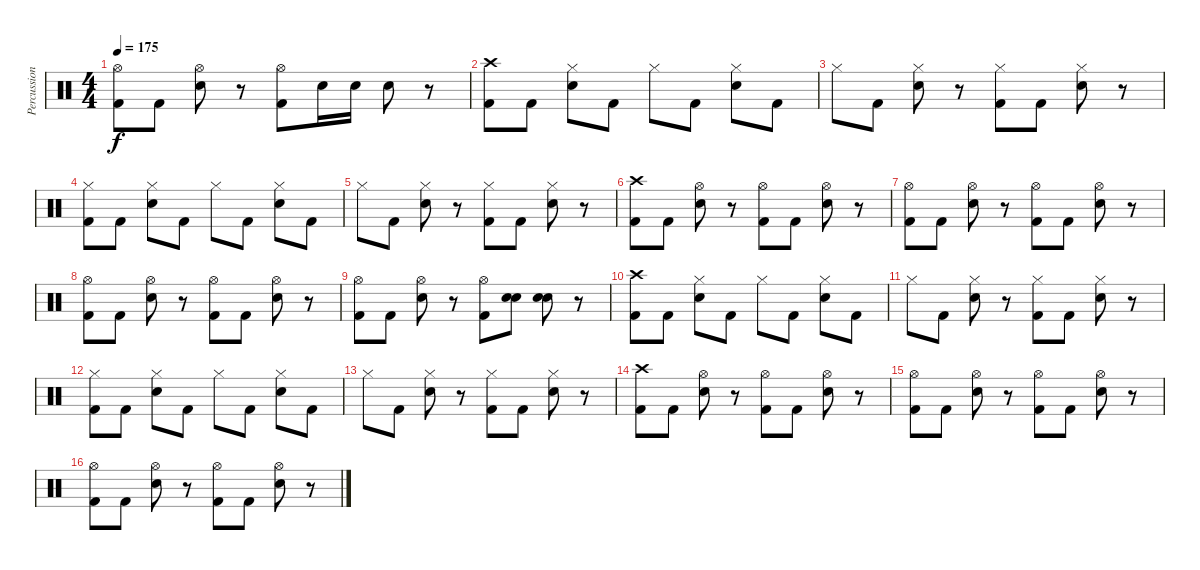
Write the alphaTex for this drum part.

\track ("Percussion" "Percussion") {instrument percussion}
\staff {score}
\articulation defaults
\ts (4 4)
\tempo 175
\clef neutral
\ks c
("Hi-Hat (open)" "Kick (hit) 2").8{dy f} "Kick (hit) 2".8 ("Hi-Hat (open)" "Snare (hit) 2").8 r.8 ("Hi-Hat (open)" "Kick (hit) 2").8 "Snare (hit) 2".16 "Snare (hit) 2".16 "Snare (hit) 2".8 r.8 |
("Crash high (hit)" "Kick (hit) 2").8 "Kick (hit) 2".8 ("Hi-Hat (closed)" "Snare (hit) 2").8 "Kick (hit) 2".8 "Hi-Hat (closed)".8 "Kick (hit) 2".8 ("Hi-Hat (closed)" "Snare (hit) 2").8 "Kick (hit) 2".8 |
"Hi-Hat (closed)".8 "Kick (hit) 2".8 ("Hi-Hat (closed)" "Snare (hit) 2").8 r.8 ("Hi-Hat (closed)" "Kick (hit) 2").8 "Kick (hit) 2".8 ("Hi-Hat (closed)" "Snare (hit) 2").8 r.8 |
("Hi-Hat (closed)" "Kick (hit) 2").8 "Kick (hit) 2".8 ("Hi-Hat (closed)" "Snare (hit) 2").8 "Kick (hit) 2".8 "Hi-Hat (closed)".8 "Kick (hit) 2".8 ("Hi-Hat (closed)" "Snare (hit) 2").8 "Kick (hit) 2".8 |
"Hi-Hat (closed)".8 "Kick (hit) 2".8 ("Hi-Hat (closed)" "Snare (hit) 2").8 r.8 ("Hi-Hat (closed)" "Kick (hit) 2").8 "Kick (hit) 2".8 ("Hi-Hat (closed)" "Snare (hit) 2").8 r.8 |
("Crash high (hit)" "Kick (hit) 2").8 "Kick (hit) 2".8 ("Hi-Hat (open)" "Snare (hit) 2").8 r.8 ("Hi-Hat (open)" "Kick (hit) 2").8 "Kick (hit) 2".8 ("Hi-Hat (open)" "Snare (hit) 2").8 r.8 |
("Hi-Hat (open)" "Kick (hit) 2").8 "Kick (hit) 2".8 ("Hi-Hat (open)" "Snare (hit) 2").8 r.8 ("Hi-Hat (open)" "Kick (hit) 2").8 "Kick (hit) 2".8 ("Hi-Hat (open)" "Snare (hit) 2").8 r.8 |
("Hi-Hat (open)" "Kick (hit) 2").8 "Kick (hit) 2".8 ("Hi-Hat (open)" "Snare (hit) 2").8 r.8 ("Hi-Hat (open)" "Kick (hit) 2").8 "Kick (hit) 2".8 ("Hi-Hat (open)" "Snare (hit) 2").8 r.8 |
("Hi-Hat (open)" "Kick (hit) 2").8 "Kick (hit) 2".8 ("Hi-Hat (open)" "Snare (hit) 2").8 r.8 ("Hi-Hat (open)" "Kick (hit) 2").8 ("Snare (hit) 2" "Electric Snare (hit)").8 ("Snare (hit) 2" "Electric Snare (hit)").8 r.8 |
("Crash high (hit)" "Kick (hit) 2").8 "Kick (hit) 2".8 ("Hi-Hat (closed)" "Snare (hit) 2").8 "Kick (hit) 2".8 "Hi-Hat (closed)".8 "Kick (hit) 2".8 ("Hi-Hat (closed)" "Snare (hit) 2").8 "Kick (hit) 2".8 |
"Hi-Hat (closed)".8 "Kick (hit) 2".8 ("Hi-Hat (closed)" "Snare (hit) 2").8 r.8 ("Hi-Hat (closed)" "Kick (hit) 2").8 "Kick (hit) 2".8 ("Hi-Hat (closed)" "Snare (hit) 2").8 r.8 |
("Hi-Hat (closed)" "Kick (hit) 2").8 "Kick (hit) 2".8 ("Hi-Hat (closed)" "Snare (hit) 2").8 "Kick (hit) 2".8 "Hi-Hat (closed)".8 "Kick (hit) 2".8 ("Hi-Hat (closed)" "Snare (hit) 2").8 "Kick (hit) 2".8 |
"Hi-Hat (closed)".8 "Kick (hit) 2".8 ("Hi-Hat (closed)" "Snare (hit) 2").8 r.8 ("Hi-Hat (closed)" "Kick (hit) 2").8 "Kick (hit) 2".8 ("Hi-Hat (closed)" "Snare (hit) 2").8 r.8 |
("Crash high (hit)" "Kick (hit) 2").8 "Kick (hit) 2".8 ("Hi-Hat (open)" "Snare (hit) 2").8 r.8 ("Hi-Hat (open)" "Kick (hit) 2").8 "Kick (hit) 2".8 ("Hi-Hat (open)" "Snare (hit) 2").8 r.8 |
("Hi-Hat (open)" "Kick (hit) 2").8 "Kick (hit) 2".8 ("Hi-Hat (open)" "Snare (hit) 2").8 r.8 ("Hi-Hat (open)" "Kick (hit) 2").8 "Kick (hit) 2".8 ("Hi-Hat (open)" "Snare (hit) 2").8 r.8 |
("Hi-Hat (open)" "Kick (hit) 2").8 "Kick (hit) 2".8 ("Hi-Hat (open)" "Snare (hit) 2").8 r.8 ("Hi-Hat (open)" "Kick (hit) 2").8 "Kick (hit) 2".8 ("Hi-Hat (open)" "Snare (hit) 2").8 r.8
